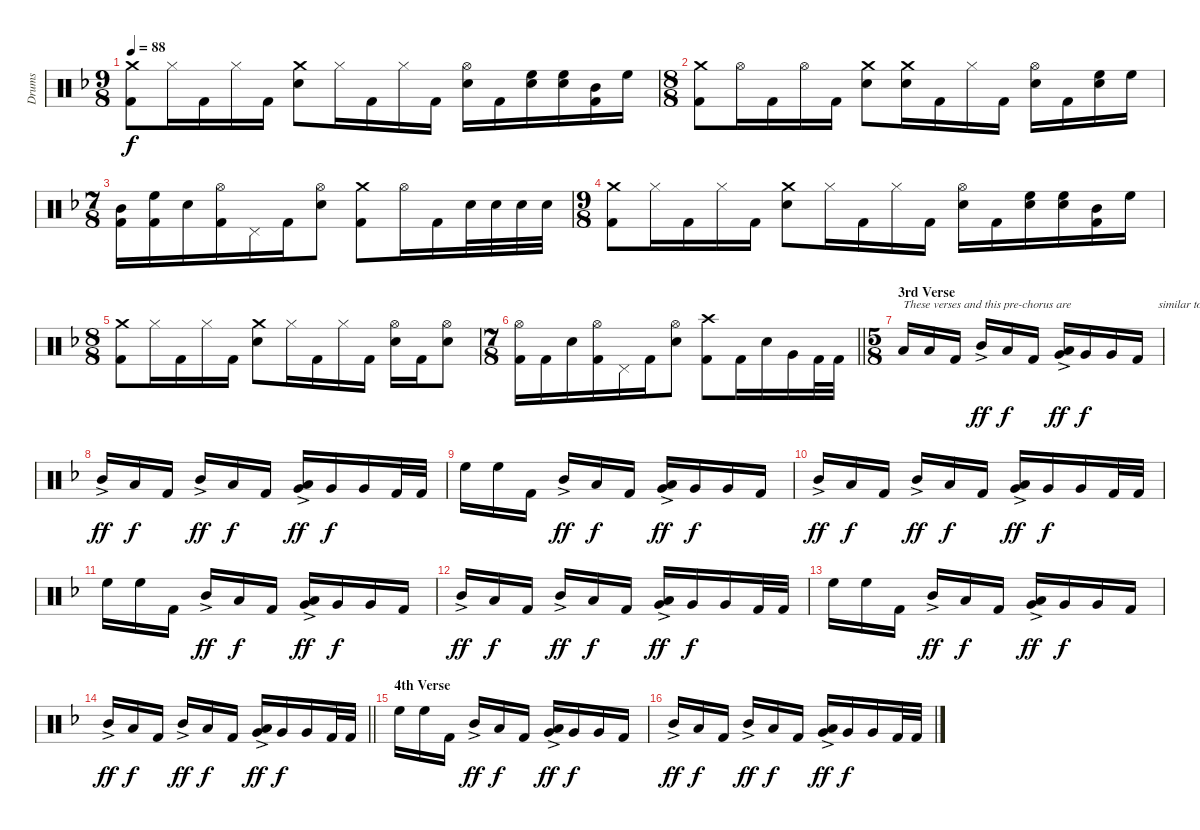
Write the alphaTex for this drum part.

\track ("Drums" "Drums") {instrument percussion}
\staff {score}
\articulation defaults
\ts (9 8)
\tempo 88
\clef neutral
\ks dminor
("Crash medium (hit)" "Kick (hit) 2").8{dy f} "Hi-Hat (closed)".16 "Kick (hit) 2".16 "Hi-Hat (closed)".16 "Kick (hit) 2".16 ("Crash medium (hit)" "Snare (hit) 2").8 "Hi-Hat (closed)".16 "Kick (hit) 2".16 "Hi-Hat (closed)".16 "Kick (hit) 2".16 ("Hi-Hat (open)" "Snare (hit) 2").16 "Kick (hit) 2".16 ("High Floor Tom (hit)" "Snare (hit) 2").16 ("High Floor Tom (hit)" "Snare (hit) 2").16 ("Mid Tom (hit)" "Kick (hit) 2").16 "High Floor Tom (hit)".16 |
\ts (8 8)
("Crash medium (hit)" "Kick (hit) 2").8{beam merge} "Hi-Hat (open)".16 "Kick (hit) 2".16{beam merge} "Hi-Hat (open)".16 "Kick (hit) 2".16 ("Crash medium (hit)" "Snare (hit) 2").8{beam merge} ("Crash medium (hit)" "Snare (hit) 2").16 "Kick (hit) 2".16{beam merge} "Hi-Hat (closed)".16 "Kick (hit) 2".16 ("Hi-Hat (open)" "Snare (hit) 2").16 "Kick (hit) 2".16{beam merge} ("High Floor Tom (hit)" "Snare (hit) 2").16 "High Floor Tom (hit)".16 |
\ts (7 8)
("Mid Tom (hit)" "Kick (hit) 2").16 ("High Floor Tom (hit)" "Kick (hit) 2").16 "Snare (hit) 2".16 ("Hi-Hat (open)" "Kick (hit) 2").16 "Pedal Hi-Hat (hit)".16 "Kick (hit) 2".16 ("Hi-Hat (open)" "Snare (hit) 2").8 ("Crash medium (hit)" "Kick (hit) 2").8 "Hi-Hat (open)".16 "Kick (hit) 2".16 "Snare (hit) 2".32 "Snare (hit) 2".32 "Snare (hit) 2".32 "Snare (hit) 2".32 |
\ts (9 8)
("Crash medium (hit)" "Kick (hit) 2").8 "Hi-Hat (closed)".16 "Kick (hit) 2".16 "Hi-Hat (closed)".16 "Kick (hit) 2".16 ("Crash medium (hit)" "Snare (hit) 2").8 "Hi-Hat (closed)".16 "Kick (hit) 2".16 "Hi-Hat (closed)".16 "Kick (hit) 2".16 ("Hi-Hat (open)" "Snare (hit) 2").16 "Kick (hit) 2".16 ("High Floor Tom (hit)" "Snare (hit) 2").16 ("High Floor Tom (hit)" "Snare (hit) 2").16 ("Mid Tom (hit)" "Kick (hit) 2").16 "High Floor Tom (hit)".16 |
\ts (8 8)
("Crash medium (hit)" "Kick (hit) 2").8{beam merge} "Hi-Hat (closed)".16 "Kick (hit) 2".16{beam merge} "Hi-Hat (closed)".16 "Kick (hit) 2".16 ("Crash medium (hit)" "Snare (hit) 2").8{beam merge} "Hi-Hat (closed)".16 "Kick (hit) 2".16{beam merge} "Hi-Hat (closed)".16 "Kick (hit) 2".16 ("Hi-Hat (open)" "Snare (hit) 2").16 "Kick (hit) 2".16{beam merge} ("Hi-Hat (open)" "Snare (hit) 2").8 |
\ts (7 8)
\barLineRight lightlight
("Hi-Hat (open)" "Kick (hit) 2").16 "Kick (hit) 2".16{beam merge} "Electric Snare (hit)".16 ("Hi-Hat (open)" "Kick (hit) 2").16{beam merge} "Pedal Hi-Hat (hit)".16 "Kick (hit) 2".16{beam merge} ("Hi-Hat (open)" "Electric Snare (hit)").8{beam split} ("Crash high (hit)" "Kick (hit) 2").8{beam merge} "Kick (hit) 2".16 "Electric Snare (hit)".16{beam merge} "Very Low Tom (hit)".16 "Kick (hit) 2".32 "Kick (hit) 2".32 |
\ts (5 8)
\section ("" "3rd Verse")
"Low Tom (hit)".16{txt "These verses and this pre-chorus are"} "Low Tom (hit)".16{beam merge} "Kick (hit) 2".16{beam split} "Mid Tom (hit)"{ac}.16{dy ff beam merge} "Low Tom (hit)".16{dy f} "Kick (hit) 2".16{beam split} ("Low Tom (hit)"{ac} "Very Low Tom (hit)").16{dy ff} "Very Low Tom (hit)".16{dy f beam merge} "Very Low Tom (hit)".16 "Kick (hit) 2".16{txt "       similar to previous (bar 87-118 = 44-75)."} |
"Mid Tom (hit)"{ac}.16{dy ff} "Low Tom (hit)".16{dy f beam merge} "Kick (hit) 2".16{beam split} "Mid Tom (hit)"{ac}.16{dy ff beam merge} "Low Tom (hit)".16{dy f} "Kick (hit) 2".16{beam split} ("Low Tom (hit)"{ac} "Very Low Tom (hit)").16{dy ff} "Very Low Tom (hit)".16{dy f beam merge} "Very Low Tom (hit)".16 "Kick (hit) 2".32 "Kick (hit) 2".32 |
"High Floor Tom (hit)".16 "High Floor Tom (hit)".16{beam merge} "Kick (hit) 2".16{beam split} "Mid Tom (hit)"{ac}.16{dy ff beam merge} "Low Tom (hit)".16{dy f} "Kick (hit) 2".16{beam split} ("Low Tom (hit)"{ac} "Very Low Tom (hit)").16{dy ff} "Very Low Tom (hit)".16{dy f beam merge} "Very Low Tom (hit)".16 "Kick (hit) 2".16 |
"Mid Tom (hit)"{ac}.16{dy ff} "Low Tom (hit)".16{dy f beam merge} "Kick (hit) 2".16{beam split} "Mid Tom (hit)"{ac}.16{dy ff beam merge} "Low Tom (hit)".16{dy f} "Kick (hit) 2".16{beam split} ("Low Tom (hit)"{ac} "Very Low Tom (hit)").16{dy ff} "Very Low Tom (hit)".16{dy f beam merge} "Very Low Tom (hit)".16 "Kick (hit) 2".32 "Kick (hit) 2".32 |
"High Floor Tom (hit)".16 "High Floor Tom (hit)".16{beam merge} "Kick (hit) 2".16{beam split} "Mid Tom (hit)"{ac}.16{dy ff beam merge} "Low Tom (hit)".16{dy f} "Kick (hit) 2".16{beam split} ("Low Tom (hit)"{ac} "Very Low Tom (hit)").16{dy ff} "Very Low Tom (hit)".16{dy f beam merge} "Very Low Tom (hit)".16 "Kick (hit) 2".16 |
"Mid Tom (hit)"{ac}.16{dy ff} "Low Tom (hit)".16{dy f beam merge} "Kick (hit) 2".16{beam split} "Mid Tom (hit)"{ac}.16{dy ff beam merge} "Low Tom (hit)".16{dy f} "Kick (hit) 2".16{beam split} ("Low Tom (hit)"{ac} "Very Low Tom (hit)").16{dy ff} "Very Low Tom (hit)".16{dy f beam merge} "Very Low Tom (hit)".16 "Kick (hit) 2".32 "Kick (hit) 2".32 |
"High Floor Tom (hit)".16 "High Floor Tom (hit)".16{beam merge} "Kick (hit) 2".16{beam split} "Mid Tom (hit)"{ac}.16{dy ff beam merge} "Low Tom (hit)".16{dy f} "Kick (hit) 2".16{beam split} ("Low Tom (hit)"{ac} "Very Low Tom (hit)").16{dy ff} "Very Low Tom (hit)".16{dy f beam merge} "Very Low Tom (hit)".16 "Kick (hit) 2".16 |
\barLineRight lightlight "Mid Tom (hit)"{ac}.16{dy ff} "Low Tom (hit)".16{dy f beam merge} "Kick (hit) 2".16{beam split} "Mid Tom (hit)"{ac}.16{dy ff beam merge} "Low Tom (hit)".16{dy f} "Kick (hit) 2".16{beam split}
("Low Tom (hit)"{ac} "Very Low Tom (hit)").16{dy ff} "Very Low Tom (hit)".16{dy f beam merge} "Very Low Tom (hit)".16 "Kick (hit) 2".32 "Kick (hit) 2".32 |
\section ("" "4th Verse")
"High Floor Tom (hit)".16 "High Floor Tom (hit)".16{beam merge} "Kick (hit) 2".16{beam split} "Mid Tom (hit)"{ac}.16{dy ff beam merge} "Low Tom (hit)".16{dy f} "Kick (hit) 2".16{beam split} ("Low Tom (hit)"{ac} "Very Low Tom (hit)").16{dy ff} "Very Low Tom (hit)".16{dy f beam merge} "Very Low Tom (hit)".16 "Kick (hit) 2".16 |
"Mid Tom (hit)"{ac}.16{dy ff} "Low Tom (hit)".16{dy f beam merge} "Kick (hit) 2".16{beam split} "Mid Tom (hit)"{ac}.16{dy ff beam merge} "Low Tom (hit)".16{dy f} "Kick (hit) 2".16{beam split} ("Low Tom (hit)"{ac} "Very Low Tom (hit)").16{dy ff} "Very Low Tom (hit)".16{dy f beam merge} "Very Low Tom (hit)".16 "Kick (hit) 2".32 "Kick (hit) 2".32
